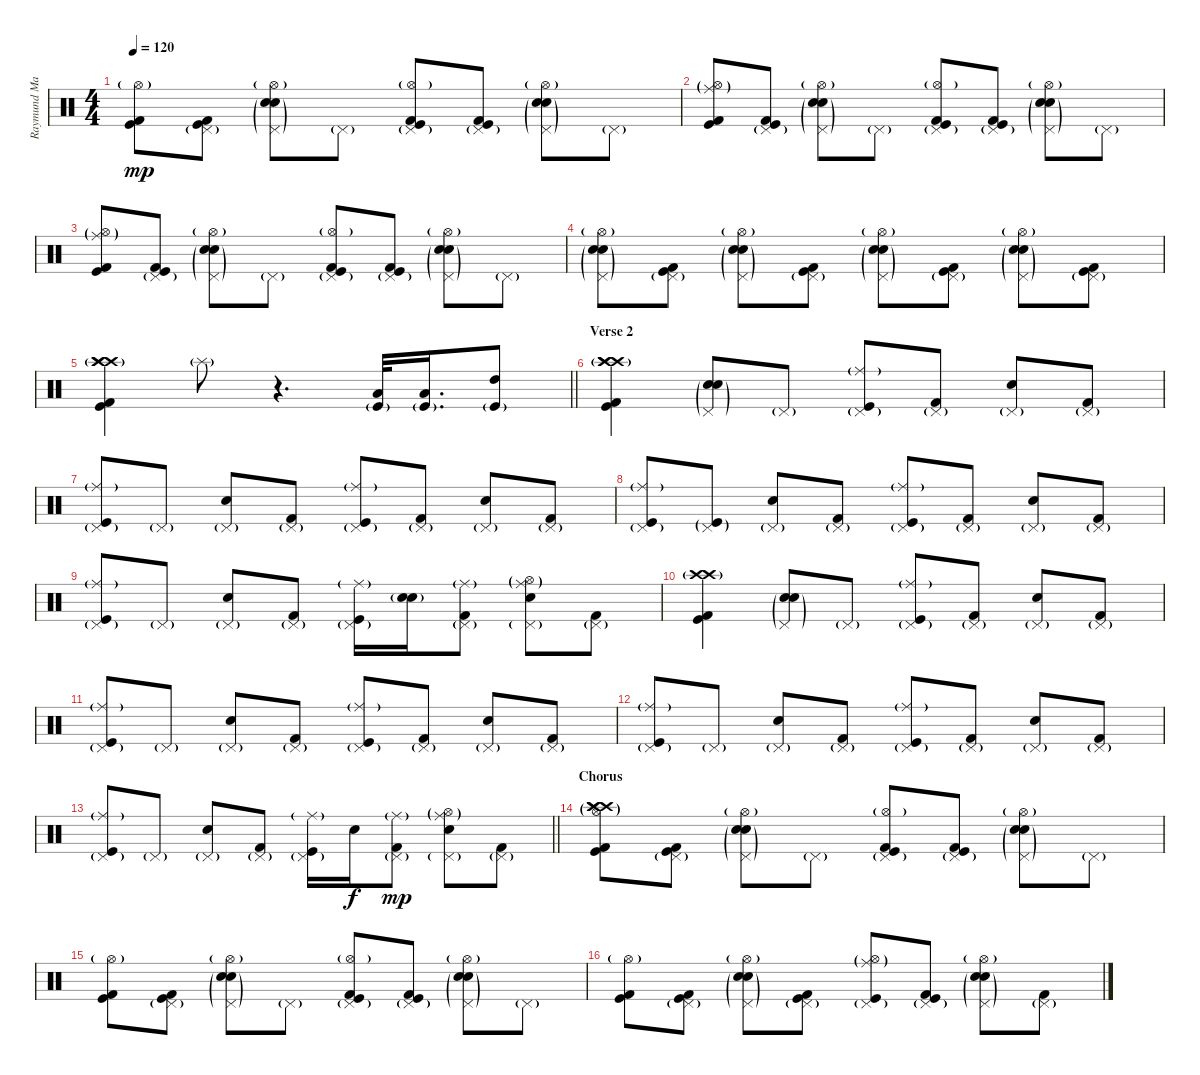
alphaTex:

\track ("Raymund Marasigan(Drums)" "Raymund Ma") {instrument percussion}
\staff {score}
\articulation defaults
\ts (4 4)
\tempo 120
\clef neutral
\ks c
("Kick (hit) 2" "Kick (hit)" "Hi-Hat (open)"{g}).8{dy mp} ("Pedal Hi-Hat (hit)"{g} "Kick (hit) 2" "Kick (hit)").8 ("Pedal Hi-Hat (hit)"{g} "Electric Snare (hit)" "Snare (hit) 2"{g} "Hi-Hat (open)"{g}).8 "Pedal Hi-Hat (hit)"{g}.8 ("Pedal Hi-Hat (hit)"{g} "Kick (hit) 2" "Kick (hit)" "Hi-Hat (open)"{g}).8 ("Pedal Hi-Hat (hit)"{g} "Kick (hit) 2" "Kick (hit)").8 ("Pedal Hi-Hat (hit)"{g} "Electric Snare (hit)" "Snare (hit) 2"{g} "Hi-Hat (open)"{g}).8 "Pedal Hi-Hat (hit)"{g}.8 |
("Ride (middle)"{g} "Kick (hit) 2" "Kick (hit)" "Hi-Hat (open)"{g}).8 ("Pedal Hi-Hat (hit)"{g} "Kick (hit) 2" "Kick (hit)").8 ("Pedal Hi-Hat (hit)"{g} "Electric Snare (hit)" "Snare (hit) 2"{g} "Hi-Hat (open)"{g}).8 "Pedal Hi-Hat (hit)"{g}.8 ("Pedal Hi-Hat (hit)"{g} "Kick (hit) 2" "Kick (hit)" "Hi-Hat (open)"{g}).8 ("Pedal Hi-Hat (hit)"{g} "Kick (hit) 2" "Kick (hit)").8 ("Pedal Hi-Hat (hit)"{g} "Electric Snare (hit)" "Snare (hit) 2"{g} "Hi-Hat (open)"{g}).8 "Pedal Hi-Hat (hit)"{g}.8 |
("Ride (middle)"{g} "Kick (hit) 2" "Kick (hit)" "Hi-Hat (open)"{g}).8 ("Pedal Hi-Hat (hit)"{g} "Kick (hit) 2" "Kick (hit)").8 ("Pedal Hi-Hat (hit)"{g} "Electric Snare (hit)" "Snare (hit) 2"{g} "Hi-Hat (open)"{g}).8 "Pedal Hi-Hat (hit)"{g}.8 ("Pedal Hi-Hat (hit)"{g} "Kick (hit) 2" "Kick (hit)" "Hi-Hat (open)"{g}).8 ("Pedal Hi-Hat (hit)"{g} "Kick (hit) 2" "Kick (hit)").8 ("Pedal Hi-Hat (hit)"{g} "Electric Snare (hit)" "Snare (hit) 2"{g} "Hi-Hat (open)"{g}).8 "Pedal Hi-Hat (hit)"{g}.8 |
("Pedal Hi-Hat (hit)"{g} "Electric Snare (hit)" "Snare (hit) 2"{g} "Hi-Hat (open)"{g}).8 ("Pedal Hi-Hat (hit)"{g} "Kick (hit) 2" "Kick (hit)").8 ("Pedal Hi-Hat (hit)"{g} "Electric Snare (hit)" "Snare (hit) 2"{g} "Hi-Hat (open)"{g}).8 ("Pedal Hi-Hat (hit)"{g} "Kick (hit) 2" "Kick (hit)").8 ("Pedal Hi-Hat (hit)"{g} "Electric Snare (hit)" "Snare (hit) 2"{g} "Hi-Hat (open)"{g}).8 ("Pedal Hi-Hat (hit)"{g} "Kick (hit) 2" "Kick (hit)").8 ("Pedal Hi-Hat (hit)"{g} "Electric Snare (hit)" "Snare (hit) 2"{g} "Hi-Hat (open)"{g}).8 ("Pedal Hi-Hat (hit)"{g} "Kick (hit) 2" "Kick (hit)").8 |
\barLineRight lightlight
("Crash high (hit)"{g} "Crash high (hit)"{g} "Crash high (hit)"{g} "Kick (hit) 2" "Kick (hit)").4 "Splash (hit)"{g}.8 r.4{d} ("Low Tom (hit)" "Kick (hit)"{g}).32 ("Low Tom (hit)" "Kick (hit)"{g}).16{d} ("High Tom (hit)" "Kick (hit)"{g}).8 |
\section ("" "Verse 2")
("Crash high (hit)"{g} "Crash high (hit)"{g} "Crash high (hit)"{g} "Kick (hit) 2" "Kick (hit)").4 ("Pedal Hi-Hat (hit)"{g} "Electric Snare (hit)" "Snare (hit) 2"{g}).8 "Pedal Hi-Hat (hit)"{g}.8 ("Pedal Hi-Hat (hit)"{g} "Kick (hit)" "Ride (middle)"{g}).8 ("Pedal Hi-Hat (hit)"{g} "Kick (hit) 2").8 ("Pedal Hi-Hat (hit)"{g} "Electric Snare (hit)").8 ("Pedal Hi-Hat (hit)"{g} "Kick (hit) 2").8 |
("Pedal Hi-Hat (hit)"{g} "Kick (hit)" "Ride (middle)"{g}).8 "Pedal Hi-Hat (hit)"{g}.8 ("Pedal Hi-Hat (hit)"{g} "Electric Snare (hit)").8 ("Pedal Hi-Hat (hit)"{g} "Kick (hit) 2").8 ("Pedal Hi-Hat (hit)"{g} "Kick (hit)" "Ride (middle)"{g}).8 ("Pedal Hi-Hat (hit)"{g} "Kick (hit) 2").8 ("Pedal Hi-Hat (hit)"{g} "Electric Snare (hit)").8 ("Pedal Hi-Hat (hit)"{g} "Kick (hit) 2").8 |
("Pedal Hi-Hat (hit)"{g} "Kick (hit)" "Ride (middle)"{g}).8 ("Pedal Hi-Hat (hit)"{g} "Kick (hit)"{g}).8 ("Pedal Hi-Hat (hit)"{g} "Electric Snare (hit)").8 ("Pedal Hi-Hat (hit)"{g} "Kick (hit) 2").8 ("Pedal Hi-Hat (hit)"{g} "Kick (hit)" "Ride (middle)"{g}).8 ("Pedal Hi-Hat (hit)"{g} "Kick (hit) 2").8 ("Pedal Hi-Hat (hit)"{g} "Electric Snare (hit)").8 ("Pedal Hi-Hat (hit)"{g} "Kick (hit) 2").8 |
("Pedal Hi-Hat (hit)"{g} "Kick (hit)" "Ride (middle)"{g}).8 "Pedal Hi-Hat (hit)"{g}.8 ("Pedal Hi-Hat (hit)"{g} "Electric Snare (hit)").8 ("Pedal Hi-Hat (hit)"{g} "Kick (hit) 2").8 ("Pedal Hi-Hat (hit)"{g} "Kick (hit)" "Ride (middle)"{g}).16 ("Electric Snare (hit)" "Snare (hit) 2"{g}).16 ("Pedal Hi-Hat (hit)"{g} "Kick (hit) 2" "Ride (middle)"{g}).8 ("Pedal Hi-Hat (hit)"{g} "Electric Snare (hit)" "Hi-Hat (open)"{g} "Ride (middle)"{g}).8 ("Pedal Hi-Hat (hit)"{g} "Kick (hit) 2").8 |
("Crash high (hit)"{g} "Crash high (hit)"{g} "Kick (hit) 2" "Kick (hit)").4 ("Pedal Hi-Hat (hit)"{g} "Electric Snare (hit)" "Snare (hit) 2"{g}).8 "Pedal Hi-Hat (hit)"{g}.8 ("Pedal Hi-Hat (hit)"{g} "Kick (hit)" "Ride (middle)"{g}).8 ("Pedal Hi-Hat (hit)"{g} "Kick (hit) 2").8 ("Pedal Hi-Hat (hit)"{g} "Electric Snare (hit)").8 ("Pedal Hi-Hat (hit)"{g} "Kick (hit) 2").8 |
("Pedal Hi-Hat (hit)"{g} "Kick (hit)" "Ride (middle)"{g}).8 "Pedal Hi-Hat (hit)"{g}.8 ("Pedal Hi-Hat (hit)"{g} "Electric Snare (hit)").8 ("Pedal Hi-Hat (hit)"{g} "Kick (hit) 2").8 ("Pedal Hi-Hat (hit)"{g} "Kick (hit)" "Ride (middle)"{g}).8 ("Pedal Hi-Hat (hit)"{g} "Kick (hit) 2").8 ("Pedal Hi-Hat (hit)"{g} "Electric Snare (hit)").8 ("Pedal Hi-Hat (hit)"{g} "Kick (hit) 2").8 |
("Pedal Hi-Hat (hit)"{g} "Kick (hit)" "Ride (middle)"{g}).8 "Pedal Hi-Hat (hit)"{g}.8 ("Pedal Hi-Hat (hit)"{g} "Electric Snare (hit)").8 ("Pedal Hi-Hat (hit)"{g} "Kick (hit) 2").8 ("Pedal Hi-Hat (hit)"{g} "Kick (hit)" "Ride (middle)"{g}).8 ("Pedal Hi-Hat (hit)"{g} "Kick (hit) 2").8 ("Pedal Hi-Hat (hit)"{g} "Electric Snare (hit)").8 ("Pedal Hi-Hat (hit)"{g} "Kick (hit) 2").8 |
\barLineRight lightlight
("Pedal Hi-Hat (hit)"{g} "Kick (hit)" "Ride (middle)"{g}).8 "Pedal Hi-Hat (hit)"{g}.8 ("Pedal Hi-Hat (hit)"{g} "Electric Snare (hit)").8 ("Pedal Hi-Hat (hit)"{g} "Kick (hit) 2").8 ("Pedal Hi-Hat (hit)"{g} "Kick (hit)" "Ride (middle)"{g}).16 "Electric Snare (hit)".16{dy f} ("Pedal Hi-Hat (hit)"{g} "Kick (hit) 2" "Ride (middle)"{g}).8{dy mp} ("Pedal Hi-Hat (hit)"{g} "Electric Snare (hit)" "Hi-Hat (open)"{g} "Ride (middle)"{g}).8 ("Pedal Hi-Hat (hit)"{g} "Kick (hit) 2").8 |
\section ("" "Chorus")
("Crash high (hit)"{g} "Crash high (hit)"{g} "Crash high (hit)"{g} "Kick (hit) 2" "Kick (hit)" "Hi-Hat (open)"{g}).8 ("Pedal Hi-Hat (hit)"{g} "Kick (hit) 2" "Kick (hit)").8 ("Pedal Hi-Hat (hit)"{g} "Electric Snare (hit)" "Snare (hit) 2"{g} "Hi-Hat (open)"{g}).8 "Pedal Hi-Hat (hit)"{g}.8 ("Pedal Hi-Hat (hit)"{g} "Kick (hit) 2" "Kick (hit)" "Hi-Hat (open)"{g}).8 ("Pedal Hi-Hat (hit)"{g} "Kick (hit) 2" "Kick (hit)").8 ("Pedal Hi-Hat (hit)"{g} "Electric Snare (hit)" "Snare (hit) 2"{g} "Hi-Hat (open)"{g}).8 "Pedal Hi-Hat (hit)"{g}.8 |
("Kick (hit) 2" "Kick (hit)" "Hi-Hat (open)"{g}).8 ("Pedal Hi-Hat (hit)"{g} "Kick (hit) 2" "Kick (hit)").8 ("Pedal Hi-Hat (hit)"{g} "Electric Snare (hit)" "Snare (hit) 2"{g} "Hi-Hat (open)"{g}).8 "Pedal Hi-Hat (hit)"{g}.8 ("Pedal Hi-Hat (hit)"{g} "Kick (hit) 2" "Kick (hit)" "Hi-Hat (open)"{g}).8 ("Pedal Hi-Hat (hit)"{g} "Kick (hit) 2" "Kick (hit)").8 ("Pedal Hi-Hat (hit)"{g} "Electric Snare (hit)" "Snare (hit) 2"{g} "Hi-Hat (open)"{g}).8 "Pedal Hi-Hat (hit)"{g}.8 |
("Kick (hit) 2" "Kick (hit)" "Hi-Hat (open)"{g}).8 ("Pedal Hi-Hat (hit)"{g} "Kick (hit) 2" "Kick (hit)").8 ("Pedal Hi-Hat (hit)"{g} "Electric Snare (hit)" "Snare (hit) 2"{g} "Hi-Hat (open)"{g}).8 ("Pedal Hi-Hat (hit)"{g} "Kick (hit) 2" "Kick (hit)").8 ("Pedal Hi-Hat (hit)"{g} "Kick (hit)" "Ride (middle)"{g} "Hi-Hat (open)"{g}).8 ("Pedal Hi-Hat (hit)"{g} "Kick (hit) 2" "Kick (hit)").8 ("Pedal Hi-Hat (hit)"{g} "Electric Snare (hit)" "Snare (hit) 2"{g} "Hi-Hat (open)"{g}).8 ("Pedal Hi-Hat (hit)"{g} "Kick (hit) 2").8
